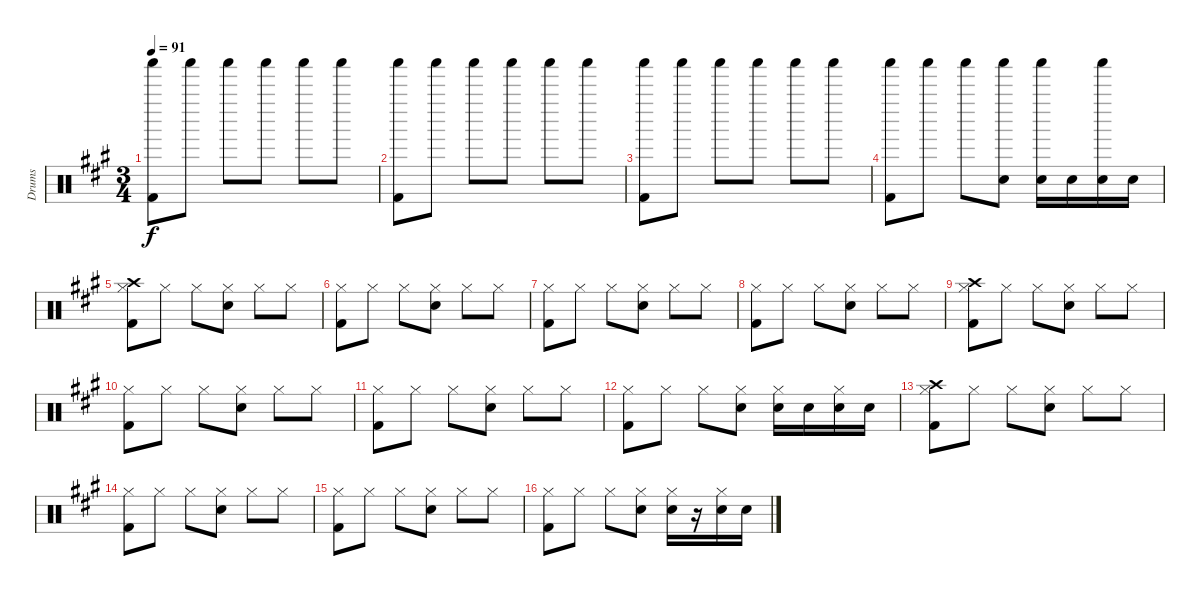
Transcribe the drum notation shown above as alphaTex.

\track ("Drums" "Drums") {instrument percussion}
\staff {score}
\articulation defaults
\ts (3 4)
\tempo 91
\clef neutral
\ks a
("Kick (hit) 2" "Shaker (hit)").8{dy f} "Shaker (hit)".8 "Shaker (hit)".8 "Shaker (hit)".8 "Shaker (hit)".8 "Shaker (hit)".8 |
("Kick (hit) 2" "Shaker (hit)").8 "Shaker (hit)".8 "Shaker (hit)".8 "Shaker (hit)".8 "Shaker (hit)".8 "Shaker (hit)".8 |
("Kick (hit) 2" "Shaker (hit)").8 "Shaker (hit)".8 "Shaker (hit)".8 "Shaker (hit)".8 "Shaker (hit)".8 "Shaker (hit)".8 |
("Kick (hit) 2" "Shaker (hit)").8 "Shaker (hit)".8 "Shaker (hit)".8 ("Snare (hit) 2" "Shaker (hit)").8 ("Snare (hit) 2" "Shaker (hit)").16 "Snare (hit) 2".16 ("Snare (hit) 2" "Shaker (hit)").16 "Snare (hit) 2".16 |
("Hi-Hat (closed)" "Kick (hit) 2" "Crash high (hit)").8 "Hi-Hat (closed)".8 "Hi-Hat (closed)".8 ("Hi-Hat (closed)" "Snare (hit) 2").8 "Hi-Hat (closed)".8 "Hi-Hat (closed)".8 |
("Hi-Hat (closed)" "Kick (hit) 2").8 "Hi-Hat (closed)".8 "Hi-Hat (closed)".8 ("Hi-Hat (closed)" "Snare (hit) 2").8 "Hi-Hat (closed)".8 "Hi-Hat (closed)".8 |
("Hi-Hat (closed)" "Kick (hit) 2").8 "Hi-Hat (closed)".8 "Hi-Hat (closed)".8 ("Hi-Hat (closed)" "Snare (hit) 2").8 "Hi-Hat (closed)".8 "Hi-Hat (closed)".8 |
("Hi-Hat (closed)" "Kick (hit) 2").8 "Hi-Hat (closed)".8 "Hi-Hat (closed)".8 ("Hi-Hat (closed)" "Snare (hit) 2").8 "Hi-Hat (closed)".8 "Hi-Hat (closed)".8 |
("Hi-Hat (closed)" "Kick (hit) 2" "Crash high (hit)").8 "Hi-Hat (closed)".8 "Hi-Hat (closed)".8 ("Hi-Hat (closed)" "Snare (hit) 2").8 "Hi-Hat (closed)".8 "Hi-Hat (closed)".8 |
("Hi-Hat (closed)" "Kick (hit) 2").8 "Hi-Hat (closed)".8 "Hi-Hat (closed)".8 ("Hi-Hat (closed)" "Snare (hit) 2").8 "Hi-Hat (closed)".8 "Hi-Hat (closed)".8 |
("Hi-Hat (closed)" "Kick (hit) 2").8 "Hi-Hat (closed)".8 "Hi-Hat (closed)".8 ("Hi-Hat (closed)" "Snare (hit) 2").8 "Hi-Hat (closed)".8 "Hi-Hat (closed)".8 |
("Hi-Hat (closed)" "Kick (hit) 2").8 "Hi-Hat (closed)".8 "Hi-Hat (closed)".8 ("Hi-Hat (closed)" "Snare (hit) 2").8 ("Hi-Hat (closed)" "Snare (hit) 2").16 "Snare (hit) 2".16 ("Hi-Hat (closed)" "Snare (hit) 2").16 "Snare (hit) 2".16 |
("Hi-Hat (closed)" "Kick (hit) 2" "Crash high (hit)").8 "Hi-Hat (closed)".8 "Hi-Hat (closed)".8 ("Hi-Hat (closed)" "Snare (hit) 2").8 "Hi-Hat (closed)".8 "Hi-Hat (closed)".8 |
("Hi-Hat (closed)" "Kick (hit) 2").8 "Hi-Hat (closed)".8 "Hi-Hat (closed)".8 ("Hi-Hat (closed)" "Snare (hit) 2").8 "Hi-Hat (closed)".8 "Hi-Hat (closed)".8 |
("Hi-Hat (closed)" "Kick (hit) 2").8 "Hi-Hat (closed)".8 "Hi-Hat (closed)".8 ("Hi-Hat (closed)" "Snare (hit) 2").8 "Hi-Hat (closed)".8 "Hi-Hat (closed)".8 |
("Hi-Hat (closed)" "Kick (hit) 2").8 "Hi-Hat (closed)".8 "Hi-Hat (closed)".8 ("Hi-Hat (closed)" "Snare (hit) 2").8 ("Hi-Hat (closed)" "Snare (hit) 2").16 r.16 ("Hi-Hat (closed)" "Snare (hit) 2").16 "Snare (hit) 2".16
